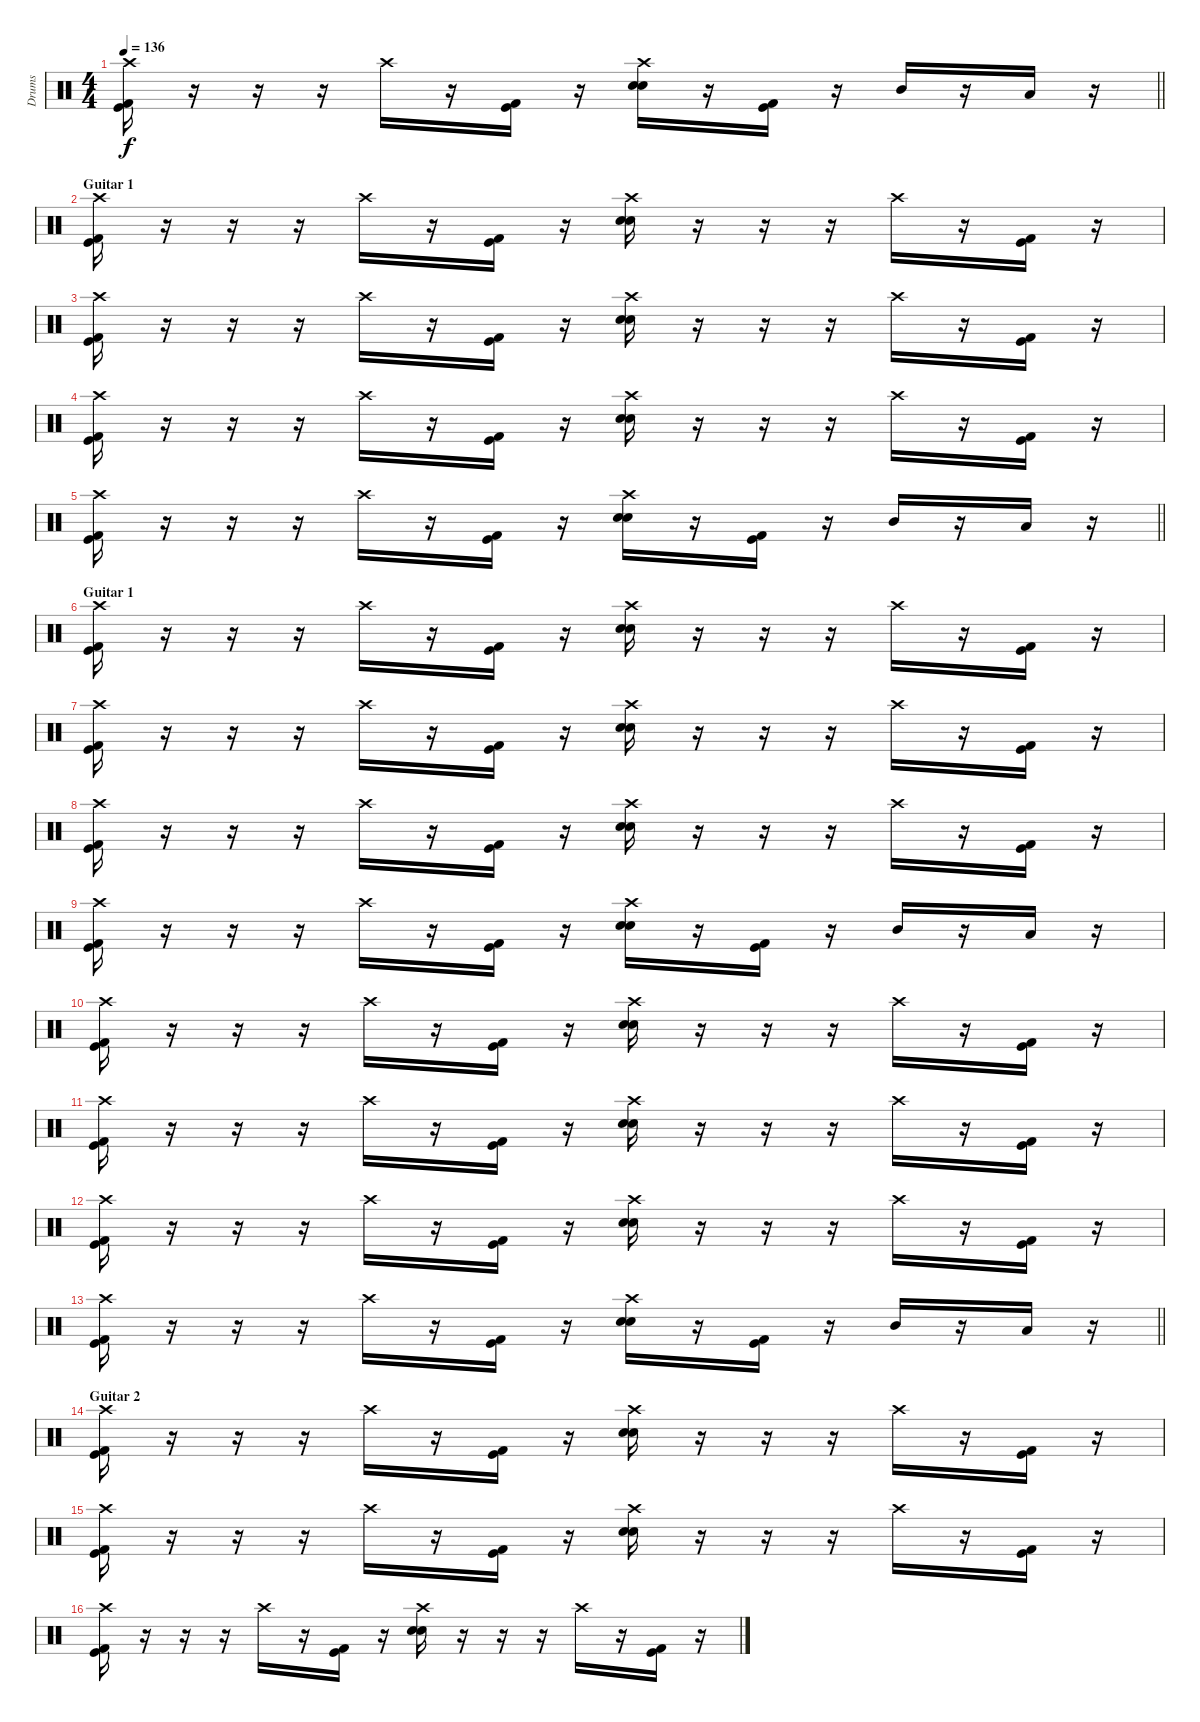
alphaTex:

\track ("Drums" "Drums") {instrument percussion}
\staff {score}
\articulation defaults
\ts (4 4)
\tempo 136
\clef neutral
\barLineRight lightlight
\ks c
("Crash high (hit)" "Kick (hit)" "Kick (hit) 2").16{dy f} r.16 r.16 r.16 "Crash high (hit)".16 r.16 ("Kick (hit)" "Kick (hit) 2").16 r.16 ("Crash high (hit)" "Electric Snare (hit)" "Snare (hit) 2").16 r.16 ("Kick (hit)" "Kick (hit) 2").16 r.16 "Mid Tom (hit)".16 r.16 "Low Tom (hit)".16 r.16 |
\section ("" "Guitar 1")
("Crash high (hit)" "Kick (hit)" "Kick (hit) 2").16 r.16 r.16 r.16 "Crash high (hit)".16 r.16 ("Kick (hit)" "Kick (hit) 2").16 r.16 ("Crash high (hit)" "Electric Snare (hit)" "Snare (hit) 2").16 r.16 r.16 r.16 "Crash high (hit)".16 r.16 ("Kick (hit)" "Kick (hit) 2").16 r.16 |
("Crash high (hit)" "Kick (hit)" "Kick (hit) 2").16 r.16 r.16 r.16 "Crash high (hit)".16 r.16 ("Kick (hit)" "Kick (hit) 2").16 r.16 ("Crash high (hit)" "Electric Snare (hit)" "Snare (hit) 2").16 r.16 r.16 r.16 "Crash high (hit)".16 r.16 ("Kick (hit)" "Kick (hit) 2").16 r.16 |
("Crash high (hit)" "Kick (hit)" "Kick (hit) 2").16 r.16 r.16 r.16 "Crash high (hit)".16 r.16 ("Kick (hit)" "Kick (hit) 2").16 r.16 ("Crash high (hit)" "Electric Snare (hit)" "Snare (hit) 2").16 r.16 r.16 r.16 "Crash high (hit)".16 r.16 ("Kick (hit)" "Kick (hit) 2").16 r.16 |
\barLineRight lightlight
("Crash high (hit)" "Kick (hit)" "Kick (hit) 2").16 r.16 r.16 r.16 "Crash high (hit)".16 r.16 ("Kick (hit)" "Kick (hit) 2").16 r.16 ("Crash high (hit)" "Electric Snare (hit)" "Snare (hit) 2").16 r.16 ("Kick (hit)" "Kick (hit) 2").16 r.16 "Mid Tom (hit)".16 r.16 "Low Tom (hit)".16 r.16 |
\section ("" "Guitar 1")
("Crash high (hit)" "Kick (hit)" "Kick (hit) 2").16 r.16 r.16 r.16 "Crash high (hit)".16 r.16 ("Kick (hit)" "Kick (hit) 2").16 r.16 ("Crash high (hit)" "Electric Snare (hit)" "Snare (hit) 2").16 r.16 r.16 r.16 "Crash high (hit)".16 r.16 ("Kick (hit)" "Kick (hit) 2").16 r.16 |
("Crash high (hit)" "Kick (hit)" "Kick (hit) 2").16 r.16 r.16 r.16 "Crash high (hit)".16 r.16 ("Kick (hit)" "Kick (hit) 2").16 r.16 ("Crash high (hit)" "Electric Snare (hit)" "Snare (hit) 2").16 r.16 r.16 r.16 "Crash high (hit)".16 r.16 ("Kick (hit)" "Kick (hit) 2").16 r.16 |
("Crash high (hit)" "Kick (hit)" "Kick (hit) 2").16 r.16 r.16 r.16 "Crash high (hit)".16 r.16 ("Kick (hit)" "Kick (hit) 2").16 r.16 ("Crash high (hit)" "Electric Snare (hit)" "Snare (hit) 2").16 r.16 r.16 r.16 "Crash high (hit)".16 r.16 ("Kick (hit)" "Kick (hit) 2").16 r.16 |
("Crash high (hit)" "Kick (hit)" "Kick (hit) 2").16 r.16 r.16 r.16 "Crash high (hit)".16 r.16 ("Kick (hit)" "Kick (hit) 2").16 r.16 ("Crash high (hit)" "Electric Snare (hit)" "Snare (hit) 2").16 r.16 ("Kick (hit)" "Kick (hit) 2").16 r.16 "Mid Tom (hit)".16 r.16 "Low Tom (hit)".16 r.16 |
("Crash high (hit)" "Kick (hit)" "Kick (hit) 2").16 r.16 r.16 r.16 "Crash high (hit)".16 r.16 ("Kick (hit)" "Kick (hit) 2").16 r.16 ("Crash high (hit)" "Electric Snare (hit)" "Snare (hit) 2").16 r.16 r.16 r.16 "Crash high (hit)".16 r.16 ("Kick (hit)" "Kick (hit) 2").16 r.16 |
("Crash high (hit)" "Kick (hit)" "Kick (hit) 2").16 r.16 r.16 r.16 "Crash high (hit)".16 r.16 ("Kick (hit)" "Kick (hit) 2").16 r.16 ("Crash high (hit)" "Electric Snare (hit)" "Snare (hit) 2").16 r.16 r.16 r.16 "Crash high (hit)".16 r.16 ("Kick (hit)" "Kick (hit) 2").16 r.16 |
("Crash high (hit)" "Kick (hit)" "Kick (hit) 2").16 r.16 r.16 r.16 "Crash high (hit)".16 r.16 ("Kick (hit)" "Kick (hit) 2").16 r.16 ("Crash high (hit)" "Electric Snare (hit)" "Snare (hit) 2").16 r.16 r.16 r.16 "Crash high (hit)".16 r.16 ("Kick (hit)" "Kick (hit) 2").16 r.16 |
\barLineRight lightlight
("Crash high (hit)" "Kick (hit)" "Kick (hit) 2").16 r.16 r.16 r.16 "Crash high (hit)".16 r.16 ("Kick (hit)" "Kick (hit) 2").16 r.16 ("Crash high (hit)" "Electric Snare (hit)" "Snare (hit) 2").16 r.16 ("Kick (hit)" "Kick (hit) 2").16 r.16 "Mid Tom (hit)".16 r.16 "Low Tom (hit)".16 r.16 |
\section ("" "Guitar 2")
("Crash high (hit)" "Kick (hit)" "Kick (hit) 2").16 r.16 r.16 r.16 "Crash high (hit)".16 r.16 ("Kick (hit)" "Kick (hit) 2").16 r.16 ("Crash high (hit)" "Electric Snare (hit)" "Snare (hit) 2").16 r.16 r.16 r.16 "Crash high (hit)".16 r.16 ("Kick (hit)" "Kick (hit) 2").16 r.16 |
("Crash high (hit)" "Kick (hit)" "Kick (hit) 2").16 r.16 r.16 r.16 "Crash high (hit)".16 r.16 ("Kick (hit)" "Kick (hit) 2").16 r.16 ("Crash high (hit)" "Electric Snare (hit)" "Snare (hit) 2").16 r.16 r.16 r.16 "Crash high (hit)".16 r.16 ("Kick (hit)" "Kick (hit) 2").16 r.16 |
("Crash high (hit)" "Kick (hit)" "Kick (hit) 2").16 r.16 r.16 r.16 "Crash high (hit)".16 r.16 ("Kick (hit)" "Kick (hit) 2").16 r.16 ("Crash high (hit)" "Electric Snare (hit)" "Snare (hit) 2").16 r.16 r.16 r.16 "Crash high (hit)".16 r.16 ("Kick (hit)" "Kick (hit) 2").16 r.16
